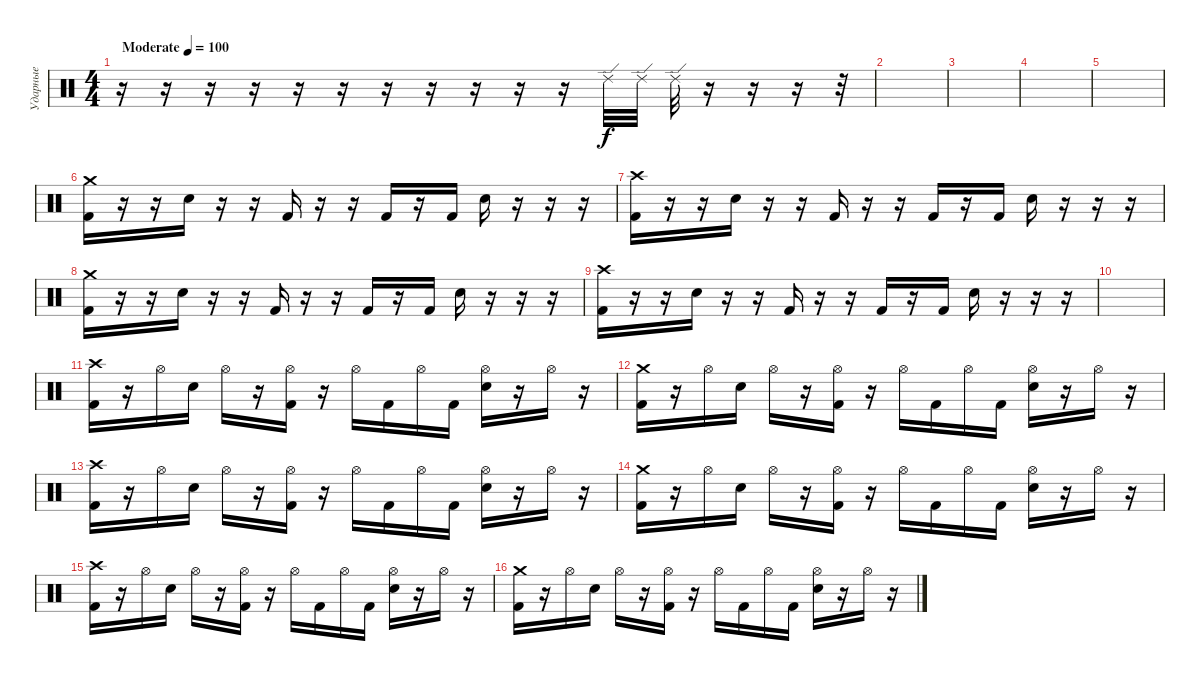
\track ("Ударные" "Ударные") {instrument percussion}
\staff {score}
\articulation defaults
\ts (4 4)
\tempo (100 "Moderate")
\clef neutral
\ks c
r.16{dy f} r.16 r.16 r.16 r.16 r.16 r.16 r.16 r.16 r.16 r.16 "Ride (edge) 2".32 "Ride (edge) 2".32 "Ride (edge) 2".32 r.16 r.16 r.16 r.32 |
|
|
|
|
("Kick (hit) 2" "Crash medium (hit)").16 r.16 r.16 "Electric Snare (hit)".16 r.16 r.16 "Kick (hit) 2".16 r.16 r.16 "Kick (hit) 2".16 r.16 "Kick (hit) 2".16 "Electric Snare (hit)".16 r.16 r.16 r.16 |
("Kick (hit) 2" "Crash high (hit)").16 r.16 r.16 "Electric Snare (hit)".16 r.16 r.16 "Kick (hit) 2".16 r.16 r.16 "Kick (hit) 2".16 r.16 "Kick (hit) 2".16 "Electric Snare (hit)".16 r.16 r.16 r.16 |
("Kick (hit) 2" "Crash medium (hit)").16 r.16 r.16 "Electric Snare (hit)".16 r.16 r.16 "Kick (hit) 2".16 r.16 r.16 "Kick (hit) 2".16 r.16 "Kick (hit) 2".16 "Electric Snare (hit)".16 r.16 r.16 r.16 |
("Kick (hit) 2" "Crash high (hit)").16 r.16 r.16 "Electric Snare (hit)".16 r.16 r.16 "Kick (hit) 2".16 r.16 r.16 "Kick (hit) 2".16 r.16 "Kick (hit) 2".16 "Electric Snare (hit)".16 r.16 r.16 r.16 |
|
("Kick (hit) 2" "Crash high (hit)").16 r.16 "Hi-Hat (open)".16 "Electric Snare (hit)".16 "Hi-Hat (open)".16 r.16 ("Kick (hit) 2" "Hi-Hat (open)").16 r.16 "Hi-Hat (open)".16 "Kick (hit) 2".16 "Hi-Hat (open)".16 "Kick (hit) 2".16 ("Electric Snare (hit)" "Hi-Hat (open)").16 r.16 "Hi-Hat (open)".16 r.16 |
("Kick (hit) 2" "Crash medium (hit)").16 r.16 "Hi-Hat (open)".16 "Electric Snare (hit)".16 "Hi-Hat (open)".16 r.16 ("Kick (hit) 2" "Hi-Hat (open)").16 r.16 "Hi-Hat (open)".16 "Kick (hit) 2".16 "Hi-Hat (open)".16 "Kick (hit) 2".16 ("Electric Snare (hit)" "Hi-Hat (open)").16 r.16 "Hi-Hat (open)".16 r.16 |
("Kick (hit) 2" "Crash high (hit)").16 r.16 "Hi-Hat (open)".16 "Electric Snare (hit)".16 "Hi-Hat (open)".16 r.16 ("Kick (hit) 2" "Hi-Hat (open)").16 r.16 "Hi-Hat (open)".16 "Kick (hit) 2".16 "Hi-Hat (open)".16 "Kick (hit) 2".16 ("Electric Snare (hit)" "Hi-Hat (open)").16 r.16 "Hi-Hat (open)".16 r.16 |
("Kick (hit) 2" "Crash medium (hit)").16 r.16 "Hi-Hat (open)".16 "Electric Snare (hit)".16 "Hi-Hat (open)".16 r.16 ("Kick (hit) 2" "Hi-Hat (open)").16 r.16 "Hi-Hat (open)".16 "Kick (hit) 2".16 "Hi-Hat (open)".16 "Kick (hit) 2".16 ("Electric Snare (hit)" "Hi-Hat (open)").16 r.16 "Hi-Hat (open)".16 r.16 |
("Kick (hit) 2" "Crash high (hit)").16 r.16 "Hi-Hat (open)".16 "Electric Snare (hit)".16 "Hi-Hat (open)".16 r.16 ("Kick (hit) 2" "Hi-Hat (open)").16 r.16 "Hi-Hat (open)".16 "Kick (hit) 2".16 "Hi-Hat (open)".16 "Kick (hit) 2".16 ("Electric Snare (hit)" "Hi-Hat (open)").16 r.16 "Hi-Hat (open)".16 r.16 |
("Kick (hit) 2" "Crash medium (hit)").16 r.16 "Hi-Hat (open)".16 "Electric Snare (hit)".16 "Hi-Hat (open)".16 r.16 ("Kick (hit) 2" "Hi-Hat (open)").16 r.16 "Hi-Hat (open)".16 "Kick (hit) 2".16 "Hi-Hat (open)".16 "Kick (hit) 2".16 ("Electric Snare (hit)" "Hi-Hat (open)").16 r.16 "Hi-Hat (open)".16 r.16
